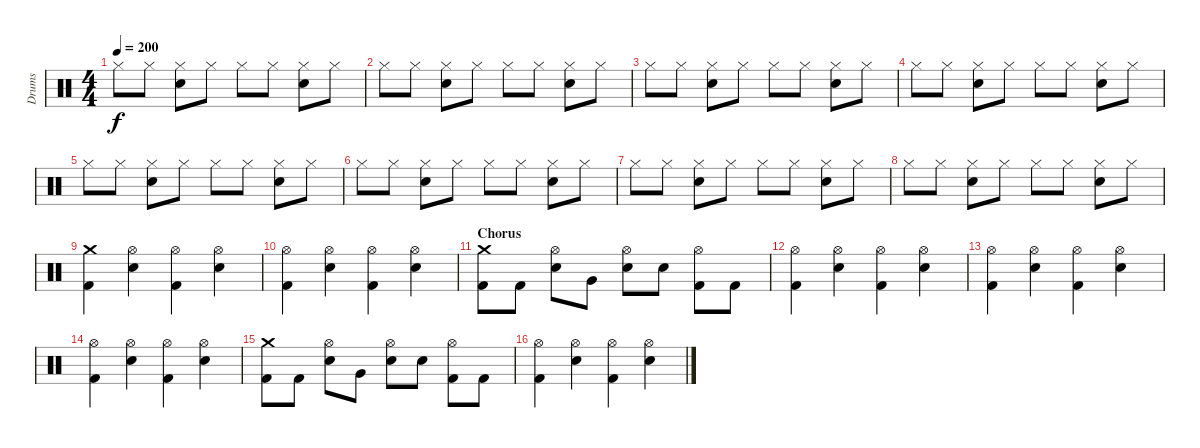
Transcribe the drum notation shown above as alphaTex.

\track ("Drums" "Drums") {instrument percussion}
\staff {score}
\articulation defaults
\ts (4 4)
\tempo 200
\clef neutral
\ks c "Hi-Hat (closed)".8{dy f} "Hi-Hat (closed)".8
("Hi-Hat (closed)" "Snare (hit) 2").8 "Hi-Hat (closed)".8 "Hi-Hat (closed)".8 "Hi-Hat (closed)".8 ("Hi-Hat (closed)" "Snare (hit) 2").8 "Hi-Hat (closed)".8 |
"Hi-Hat (closed)".8 "Hi-Hat (closed)".8 ("Hi-Hat (closed)" "Snare (hit) 2").8 "Hi-Hat (closed)".8 "Hi-Hat (closed)".8 "Hi-Hat (closed)".8 ("Hi-Hat (closed)" "Snare (hit) 2").8 "Hi-Hat (closed)".8 |
"Hi-Hat (closed)".8 "Hi-Hat (closed)".8 ("Hi-Hat (closed)" "Snare (hit) 2").8 "Hi-Hat (closed)".8 "Hi-Hat (closed)".8 "Hi-Hat (closed)".8 ("Hi-Hat (closed)" "Snare (hit) 2").8 "Hi-Hat (closed)".8 |
"Hi-Hat (closed)".8 "Hi-Hat (closed)".8 ("Hi-Hat (closed)" "Snare (hit) 2").8 "Hi-Hat (closed)".8 "Hi-Hat (closed)".8 "Hi-Hat (closed)".8 ("Hi-Hat (closed)" "Snare (hit) 2").8 "Hi-Hat (closed)".8 |
"Hi-Hat (closed)".8 "Hi-Hat (closed)".8 ("Hi-Hat (closed)" "Snare (hit) 2").8 "Hi-Hat (closed)".8 "Hi-Hat (closed)".8 "Hi-Hat (closed)".8 ("Hi-Hat (closed)" "Snare (hit) 2").8 "Hi-Hat (closed)".8 |
"Hi-Hat (closed)".8 "Hi-Hat (closed)".8 ("Hi-Hat (closed)" "Snare (hit) 2").8 "Hi-Hat (closed)".8 "Hi-Hat (closed)".8 "Hi-Hat (closed)".8 ("Hi-Hat (closed)" "Snare (hit) 2").8 "Hi-Hat (closed)".8 |
"Hi-Hat (closed)".8 "Hi-Hat (closed)".8 ("Hi-Hat (closed)" "Snare (hit) 2").8 "Hi-Hat (closed)".8 "Hi-Hat (closed)".8 "Hi-Hat (closed)".8 ("Hi-Hat (closed)" "Snare (hit) 2").8 "Hi-Hat (closed)".8 |
"Hi-Hat (closed)".8 "Hi-Hat (closed)".8 ("Hi-Hat (closed)" "Snare (hit) 2").8 "Hi-Hat (closed)".8 "Hi-Hat (closed)".8 "Hi-Hat (closed)".8 ("Hi-Hat (closed)" "Snare (hit) 2").8 "Hi-Hat (closed)".8 |
("Crash medium (hit)" "Kick (hit) 2").4 ("Hi-Hat (open)" "Snare (hit) 2").4 ("Hi-Hat (open)" "Kick (hit) 2").4 ("Hi-Hat (open)" "Snare (hit) 2").4 |
("Hi-Hat (open)" "Kick (hit) 2").4 ("Hi-Hat (open)" "Snare (hit) 2").4 ("Hi-Hat (open)" "Kick (hit) 2").4 ("Hi-Hat (open)" "Snare (hit) 2").4 |
\section ("" "Chorus")
("Crash medium (hit)" "Kick (hit) 2").8 "Kick (hit) 2".8 ("Hi-Hat (open)" "Snare (hit) 2").8 "Very Low Tom (hit)".8 ("Hi-Hat (open)" "Snare (hit) 2").8 "Snare (hit) 2".8 ("Hi-Hat (open)" "Kick (hit) 2").8 "Kick (hit) 2".8 |
("Hi-Hat (open)" "Kick (hit) 2").4 ("Hi-Hat (open)" "Snare (hit) 2").4 ("Hi-Hat (open)" "Kick (hit) 2").4 ("Hi-Hat (open)" "Snare (hit) 2").4 |
("Hi-Hat (open)" "Kick (hit) 2").4 ("Hi-Hat (open)" "Snare (hit) 2").4 ("Hi-Hat (open)" "Kick (hit) 2").4 ("Hi-Hat (open)" "Snare (hit) 2").4 |
("Hi-Hat (open)" "Kick (hit) 2").4 ("Hi-Hat (open)" "Snare (hit) 2").4 ("Hi-Hat (open)" "Kick (hit) 2").4 ("Hi-Hat (open)" "Snare (hit) 2").4 |
("Crash medium (hit)" "Kick (hit) 2").8 "Kick (hit) 2".8 ("Hi-Hat (open)" "Snare (hit) 2").8 "Very Low Tom (hit)".8 ("Hi-Hat (open)" "Snare (hit) 2").8 "Snare (hit) 2".8 ("Hi-Hat (open)" "Kick (hit) 2").8 "Kick (hit) 2".8 |
("Hi-Hat (open)" "Kick (hit) 2").4 ("Hi-Hat (open)" "Snare (hit) 2").4 ("Hi-Hat (open)" "Kick (hit) 2").4 ("Hi-Hat (open)" "Snare (hit) 2").4
